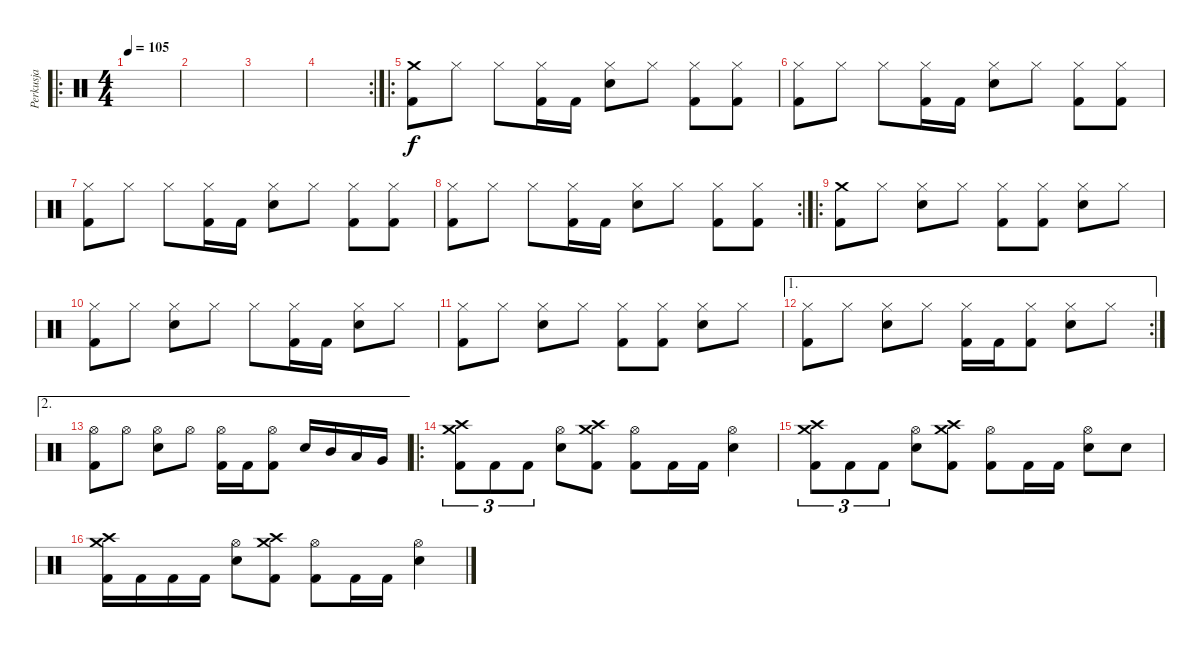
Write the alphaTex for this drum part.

\track ("Perkusja" "Perkusja") {instrument percussion}
\staff {score}
\articulation defaults
\ro
\ts (4 4)
\tempo 105
\clef neutral
\ks c
|
|
|
\rc 2
|
\ro
("Crash medium (hit)" "Kick (hit) 2").8 "Hi-Hat (closed)".8 "Hi-Hat (closed)".8 ("Hi-Hat (closed)" "Kick (hit) 2").16 "Kick (hit) 2".16 ("Hi-Hat (closed)" "Snare (hit) 2").8 "Hi-Hat (closed)".8 ("Hi-Hat (closed)" "Kick (hit) 2").8 ("Hi-Hat (closed)" "Kick (hit) 2").8 |
("Hi-Hat (closed)" "Kick (hit) 2").8 "Hi-Hat (closed)".8 "Hi-Hat (closed)".8 ("Hi-Hat (closed)" "Kick (hit) 2").16 "Kick (hit) 2".16 ("Hi-Hat (closed)" "Snare (hit) 2").8 "Hi-Hat (closed)".8 ("Hi-Hat (closed)" "Kick (hit) 2").8 ("Hi-Hat (closed)" "Kick (hit) 2").8 |
("Hi-Hat (closed)" "Kick (hit) 2").8 "Hi-Hat (closed)".8 "Hi-Hat (closed)".8 ("Hi-Hat (closed)" "Kick (hit) 2").16 "Kick (hit) 2".16 ("Hi-Hat (closed)" "Snare (hit) 2").8 "Hi-Hat (closed)".8 ("Hi-Hat (closed)" "Kick (hit) 2").8 ("Hi-Hat (closed)" "Kick (hit) 2").8 |
\rc 2
("Hi-Hat (closed)" "Kick (hit) 2").8 "Hi-Hat (closed)".8 "Hi-Hat (closed)".8 ("Hi-Hat (closed)" "Kick (hit) 2").16 "Kick (hit) 2".16 ("Hi-Hat (closed)" "Snare (hit) 2").8 "Hi-Hat (closed)".8 ("Hi-Hat (closed)" "Kick (hit) 2").8 ("Hi-Hat (closed)" "Kick (hit) 2").8 |
\ro
("Crash medium (hit)" "Kick (hit) 2").8 "Hi-Hat (closed)".8 ("Hi-Hat (closed)" "Snare (hit) 2").8 "Hi-Hat (closed)".8 ("Hi-Hat (closed)" "Kick (hit) 2").8 ("Hi-Hat (closed)" "Kick (hit) 2").8 ("Hi-Hat (closed)" "Snare (hit) 2").8 "Hi-Hat (closed)".8 |
("Hi-Hat (closed)" "Kick (hit) 2").8 "Hi-Hat (closed)".8 ("Hi-Hat (closed)" "Snare (hit) 2").8 "Hi-Hat (closed)".8 "Hi-Hat (closed)".8 ("Hi-Hat (closed)" "Kick (hit) 2").16 "Kick (hit) 2".16 ("Hi-Hat (closed)" "Snare (hit) 2").8 "Hi-Hat (closed)".8 |
("Hi-Hat (closed)" "Kick (hit) 2").8 "Hi-Hat (closed)".8 ("Hi-Hat (closed)" "Snare (hit) 2").8 "Hi-Hat (closed)".8 ("Hi-Hat (closed)" "Kick (hit) 2").8 ("Hi-Hat (closed)" "Kick (hit) 2").8 ("Hi-Hat (closed)" "Snare (hit) 2").8 "Hi-Hat (closed)".8 |
\ae 1
\rc 2
("Hi-Hat (closed)" "Kick (hit) 2").8 "Hi-Hat (closed)".8 ("Hi-Hat (closed)" "Snare (hit) 2").8 "Hi-Hat (closed)".8 ("Hi-Hat (closed)" "Kick (hit) 2").16 "Kick (hit) 2".16 ("Hi-Hat (closed)" "Kick (hit) 2").8 ("Hi-Hat (closed)" "Snare (hit) 2").8 "Hi-Hat (closed)".8 |
\ae 2
("Hi-Hat (open)" "Kick (hit) 2").8 "Hi-Hat (open)".8 ("Hi-Hat (open)" "Snare (hit) 2").8 "Hi-Hat (open)".8 ("Hi-Hat (open)" "Kick (hit) 2").16 "Kick (hit) 2".16 ("Hi-Hat (open)" "Kick (hit) 2").8 "Snare (hit) 2".16 "Mid Tom (hit)".16 "Low Tom (hit)".16 "Very Low Tom (hit)".16 |
\ro
("Crash high (hit)" "Crash medium (hit)" "Kick (hit) 2").8{tu (3 2)} "Kick (hit) 2".8{tu (3 2)} "Kick (hit) 2".8{tu (3 2)} ("Hi-Hat (open)" "Snare (hit) 2").8 ("Crash high (hit)" "Crash medium (hit)" "Kick (hit) 2").8 ("Hi-Hat (open)" "Kick (hit) 2").8 "Kick (hit) 2".16 "Kick (hit) 2".16 ("Hi-Hat (open)" "Snare (hit) 2").4 |
("Crash high (hit)" "Crash medium (hit)" "Kick (hit) 2").8{tu (3 2)} "Kick (hit) 2".8{tu (3 2)} "Kick (hit) 2".8{tu (3 2)} ("Hi-Hat (open)" "Snare (hit) 2").8 ("Crash high (hit)" "Crash medium (hit)" "Kick (hit) 2").8 ("Hi-Hat (open)" "Kick (hit) 2").8 "Kick (hit) 2".16 "Kick (hit) 2".16 ("Hi-Hat (open)" "Snare (hit) 2").8 "Snare (hit) 2".8 |
("Crash high (hit)" "Crash medium (hit)" "Kick (hit) 2").16 "Kick (hit) 2".16 "Kick (hit) 2".16 "Kick (hit) 2".16 ("Hi-Hat (open)" "Snare (hit) 2").8 ("Crash high (hit)" "Crash medium (hit)" "Kick (hit) 2").8 ("Hi-Hat (open)" "Kick (hit) 2").8 "Kick (hit) 2".16 "Kick (hit) 2".16 ("Hi-Hat (open)" "Snare (hit) 2").4
